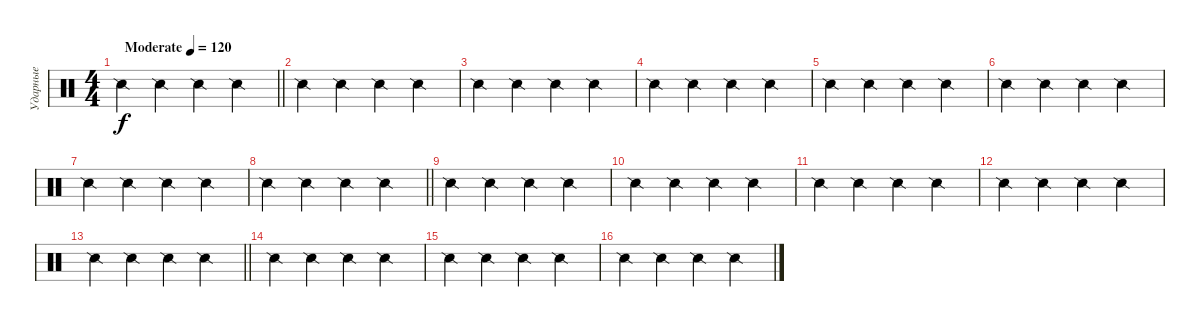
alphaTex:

\track ("Ударные" "Ударные") {instrument percussion}
\staff {score}
\articulation defaults
\ts (4 4)
\tempo (120 "Moderate")
\clef neutral
\barLineRight lightlight
\ks c "Snare (side stick) 2".4{dy f} "Snare (side stick) 2".4 "Snare (side stick) 2".4 "Snare (side stick) 2".4
|
"Snare (side stick) 2".4 "Snare (side stick) 2".4 "Snare (side stick) 2".4 "Snare (side stick) 2".4 |
"Snare (side stick) 2".4 "Snare (side stick) 2".4 "Snare (side stick) 2".4 "Snare (side stick) 2".4 |
"Snare (side stick) 2".4 "Snare (side stick) 2".4 "Snare (side stick) 2".4 "Snare (side stick) 2".4 |
"Snare (side stick) 2".4 "Snare (side stick) 2".4 "Snare (side stick) 2".4 "Snare (side stick) 2".4 |
"Snare (side stick) 2".4 "Snare (side stick) 2".4 "Snare (side stick) 2".4 "Snare (side stick) 2".4 |
"Snare (side stick) 2".4 "Snare (side stick) 2".4 "Snare (side stick) 2".4 "Snare (side stick) 2".4 |
\barLineRight lightlight "Snare (side stick) 2".4 "Snare (side stick) 2".4 "Snare (side stick) 2".4 "Snare (side stick) 2".4
|
"Snare (side stick) 2".4 "Snare (side stick) 2".4 "Snare (side stick) 2".4 "Snare (side stick) 2".4 |
"Snare (side stick) 2".4 "Snare (side stick) 2".4 "Snare (side stick) 2".4 "Snare (side stick) 2".4 |
"Snare (side stick) 2".4 "Snare (side stick) 2".4 "Snare (side stick) 2".4 "Snare (side stick) 2".4 |
"Snare (side stick) 2".4 "Snare (side stick) 2".4 "Snare (side stick) 2".4 "Snare (side stick) 2".4 |
\barLineRight lightlight "Snare (side stick) 2".4 "Snare (side stick) 2".4 "Snare (side stick) 2".4 "Snare (side stick) 2".4
|
"Snare (side stick) 2".4 "Snare (side stick) 2".4 "Snare (side stick) 2".4 "Snare (side stick) 2".4 |
"Snare (side stick) 2".4 "Snare (side stick) 2".4 "Snare (side stick) 2".4 "Snare (side stick) 2".4 |
"Snare (side stick) 2".4 "Snare (side stick) 2".4 "Snare (side stick) 2".4 "Snare (side stick) 2".4
